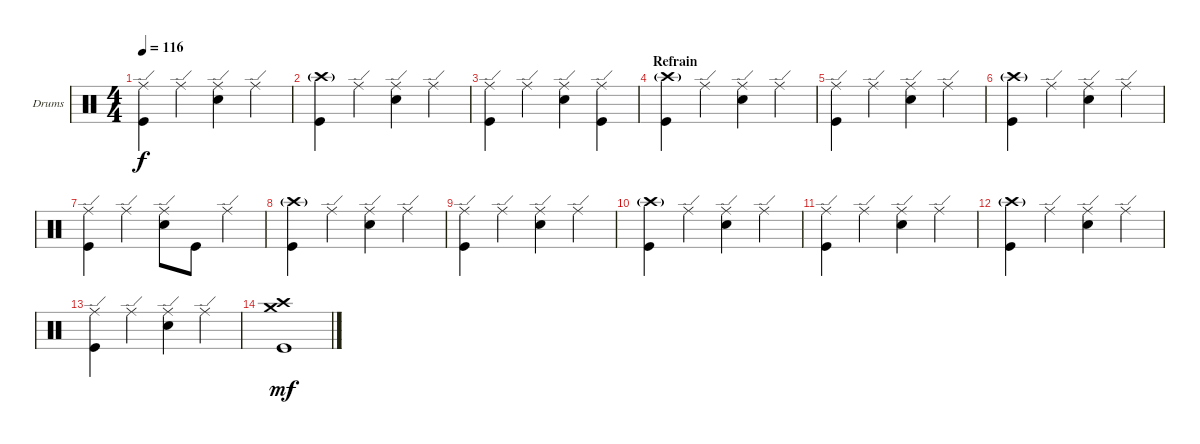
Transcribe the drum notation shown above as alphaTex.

\bracketExtendMode groupsimilarinstruments
\firstSystemTrackNameOrientation horizontal
\otherSystemsTrackNameOrientation horizontal
\track ("Nick Mason" "Drums") {multiBarRest instrument percussion}
\staff {score}
\articulation defaults
\ts (4 4)
\tempo 116
\clef neutral
\ks c
("Ride (edge)" "Kick (hit)").4{dy f} "Ride (edge)".4 ("Ride (edge)" "Snare (hit) 2").4 "Ride (edge)".4 |
("Crash high (hit)"{g} "Kick (hit)").4 "Ride (edge)".4 ("Ride (edge)" "Snare (hit) 2").4 "Ride (edge)".4 |
("Ride (edge)" "Kick (hit)").4 "Ride (edge)".4 ("Ride (edge)" "Snare (hit) 2").4 ("Ride (edge)" "Kick (hit)").4 |
\section ("" "Refrain")
("Crash high (hit)"{g} "Kick (hit)").4 "Ride (edge)".4 ("Ride (edge)" "Snare (hit) 2").4 "Ride (edge)".4 |
("Ride (edge)" "Kick (hit)").4 "Ride (edge)".4 ("Ride (edge)" "Snare (hit) 2").4 "Ride (edge)".4 |
("Crash high (hit)"{g} "Kick (hit)").4 "Ride (edge)".4 ("Ride (edge)" "Snare (hit) 2").4 "Ride (edge)".4 |
("Ride (edge)" "Kick (hit)").4 "Ride (edge)".4 ("Ride (edge)" "Snare (hit) 2").8 "Kick (hit)".8 "Ride (edge)".4 |
("Crash high (hit)"{g} "Kick (hit)").4 "Ride (edge)".4 ("Ride (edge)" "Snare (hit) 2").4 "Ride (edge)".4 |
("Ride (edge)" "Kick (hit)").4 "Ride (edge)".4 ("Ride (edge)" "Snare (hit) 2").4 "Ride (edge)".4 |
("Crash high (hit)"{g} "Kick (hit)").4 "Ride (edge)".4 ("Ride (edge)" "Snare (hit) 2").4 "Ride (edge)".4 |
("Ride (edge)" "Kick (hit)").4 "Ride (edge)".4 ("Ride (edge)" "Snare (hit) 2").4 "Ride (edge)".4 |
("Crash high (hit)"{g} "Kick (hit)").4 "Ride (edge)".4 ("Ride (edge)" "Snare (hit) 2").4 "Ride (edge)".4 |
("Ride (edge)" "Kick (hit)").4 "Ride (edge)".4 ("Ride (edge)" "Snare (hit) 2").4 "Ride (edge)".4 |
("Crash high (hit)" "Crash medium (hit)" "Kick (hit)").1{dy mf}
